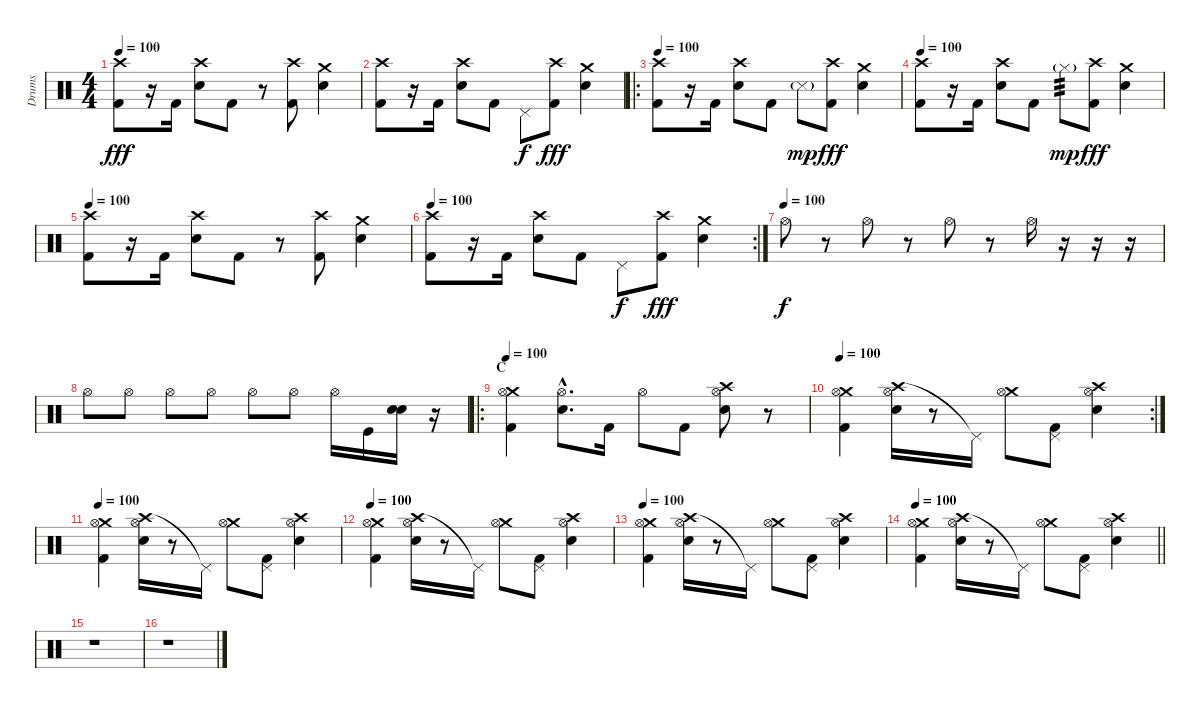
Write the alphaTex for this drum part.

\track ("Drums" "Drums") {instrument percussion}
\staff {score}
\articulation defaults
\ts (4 4)
\tempo 100
\clef neutral
\ks c
("Crash high (hit)" "Kick (hit) 2").8{dy fff} r.16 "Kick (hit) 2".16 ("Crash high (hit)" "Electric Snare (hit)").8 "Kick (hit) 2".8 r.8 ("Crash high (hit)" "Kick (hit) 2").8 ("Crash medium (hit)" "Electric Snare (hit)").4 |
("Crash high (hit)" "Kick (hit) 2").8 r.16 "Kick (hit) 2".16 ("Crash high (hit)" "Electric Snare (hit)").8 "Kick (hit) 2".8 "Pedal Hi-Hat (hit)".8{dy f} ("Crash high (hit)" "Kick (hit) 2").8{dy fff} ("Crash medium (hit)" "Electric Snare (hit)").4 |
\ro
\tempo 100
("Crash high (hit)" "Kick (hit) 2").8 r.16 "Kick (hit) 2".16 ("Crash high (hit)" "Electric Snare (hit)").8 "Kick (hit) 2".8 "Metronome (hit)"{g}.8{dy mp} ("Crash high (hit)" "Kick (hit) 2").8{dy fff} ("Crash medium (hit)" "Electric Snare (hit)").4 |
\tempo 100
("Crash high (hit)" "Kick (hit) 2").8 r.16 "Kick (hit) 2".16 ("Crash high (hit)" "Electric Snare (hit)").8 "Kick (hit) 2".8 "Hi-Hat (closed)"{g}.8{tp 3 dy mp} ("Crash high (hit)" "Kick (hit) 2").8{dy fff} ("Crash medium (hit)" "Electric Snare (hit)").4 |
\tempo 100
("Crash high (hit)" "Kick (hit) 2").8 r.16 "Kick (hit) 2".16 ("Crash high (hit)" "Electric Snare (hit)").8 "Kick (hit) 2".8 r.8 ("Crash high (hit)" "Kick (hit) 2").8 ("Crash medium (hit)" "Electric Snare (hit)").4 |
\rc 2
\tempo 100
("Crash high (hit)" "Kick (hit) 2").8 r.16 "Kick (hit) 2".16 ("Crash high (hit)" "Electric Snare (hit)").8 "Kick (hit) 2".8 "Pedal Hi-Hat (hit)".8{dy f} ("Crash high (hit)" "Kick (hit) 2").8{dy fff} ("Crash medium (hit)" "Electric Snare (hit)").4 |
\tempo (100)
"Hi-Hat (open)".8{dy f} r.8 "Hi-Hat (open)".8 r.8 "Hi-Hat (open)".8 r.8 "Hi-Hat (open)".16 r.16 r.16 r.16 |
"Hi-Hat (open)".8 "Hi-Hat (open)".8 "Hi-Hat (open)".8 "Hi-Hat (open)".8 "Hi-Hat (open)".8 "Hi-Hat (open)".8 "Hi-Hat (open)".16 "Kick (hit)".16 ("Electric Snare (hit)" "Electric Snare (hit)").16 r.16 |
\ro
\section ("" "C")
\tempo 100
("Crash medium (hit)" "Hi-Hat (open)" "Kick (hit) 2").4 ("Hi-Hat (open)"{hac} "Electric Snare (hit)"{hac}).8{d} "Kick (hit) 2".16 "Hi-Hat (open)".8 "Kick (hit) 2".8 ("Crash high (hit)" "Hi-Hat (open)" "Electric Snare (hit)").8 r.8 |
\rc 2
\tempo 100
("Crash medium (hit)" "Hi-Hat (open)" "Kick (hit) 2").4 ("Crash high (hit)" "Hi-Hat (open)" "Electric Snare (hit)").16 r.8 "Pedal Hi-Hat (hit)"{t}.16 ("Crash medium (hit)" "Hi-Hat (open)").8 ("Pedal Hi-Hat (hit)" "Kick (hit) 2").8 ("Crash high (hit)" "Hi-Hat (open)" "Electric Snare (hit)").4 |
\tempo 100
("Crash medium (hit)" "Hi-Hat (open)" "Kick (hit) 2").4 ("Crash high (hit)" "Hi-Hat (open)" "Electric Snare (hit)").16 r.8 "Pedal Hi-Hat (hit)"{t}.16 ("Crash medium (hit)" "Hi-Hat (open)").8 ("Pedal Hi-Hat (hit)" "Kick (hit) 2").8 ("Crash high (hit)" "Hi-Hat (open)" "Electric Snare (hit)").4 |
\tempo 100
("Crash medium (hit)" "Hi-Hat (open)" "Kick (hit) 2").4 ("Crash high (hit)" "Hi-Hat (open)" "Electric Snare (hit)").16 r.8 "Pedal Hi-Hat (hit)"{t}.16 ("Crash medium (hit)" "Hi-Hat (open)").8 ("Pedal Hi-Hat (hit)" "Kick (hit) 2").8 ("Crash high (hit)" "Hi-Hat (open)" "Electric Snare (hit)").4 |
\tempo 100
("Crash medium (hit)" "Hi-Hat (open)" "Kick (hit) 2").4 ("Crash high (hit)" "Hi-Hat (open)" "Electric Snare (hit)").16 r.8 "Pedal Hi-Hat (hit)"{t}.16 ("Crash medium (hit)" "Hi-Hat (open)").8 ("Pedal Hi-Hat (hit)" "Kick (hit) 2").8 ("Crash high (hit)" "Hi-Hat (open)" "Electric Snare (hit)").4 |
\tempo 100
\barLineRight lightlight
("Crash medium (hit)" "Hi-Hat (open)" "Kick (hit) 2").4 ("Crash high (hit)" "Hi-Hat (open)" "Electric Snare (hit)").16 r.8 "Pedal Hi-Hat (hit)"{t}.16 ("Crash medium (hit)" "Hi-Hat (open)").8 ("Pedal Hi-Hat (hit)" "Kick (hit) 2").8 ("Crash high (hit)" "Hi-Hat (open)" "Electric Snare (hit)").4 |
r.1 |
r.1
